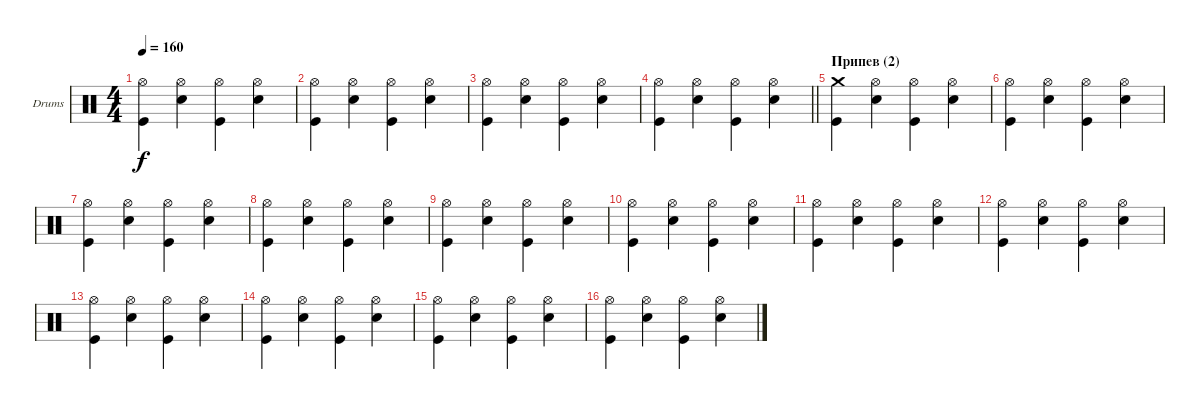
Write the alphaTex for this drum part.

\bracketExtendMode groupsimilarinstruments
\firstSystemTrackNameOrientation horizontal
\otherSystemsTrackNameOrientation horizontal
\track ("Drumkit" "Drums") {instrument percussion}
\staff {score}
\articulation defaults
\ts (4 4)
\tempo 160
\clef neutral
\ks c
("Hi-Hat (open)" "Kick (hit)").4{dy f} ("Hi-Hat (open)" "Snare (hit) 2").4 ("Hi-Hat (open)" "Kick (hit)").4 ("Hi-Hat (open)" "Snare (hit) 2").4 |
("Hi-Hat (open)" "Kick (hit)").4 ("Hi-Hat (open)" "Snare (hit) 2").4 ("Hi-Hat (open)" "Kick (hit)").4 ("Hi-Hat (open)" "Snare (hit) 2").4 |
("Hi-Hat (open)" "Kick (hit)").4 ("Hi-Hat (open)" "Snare (hit) 2").4 ("Hi-Hat (open)" "Kick (hit)").4 ("Hi-Hat (open)" "Snare (hit) 2").4 |
\barLineRight lightlight
("Hi-Hat (open)" "Kick (hit)").4 ("Hi-Hat (open)" "Snare (hit) 2").4 ("Hi-Hat (open)" "Kick (hit)").4 ("Hi-Hat (open)" "Snare (hit) 2").4 |
\section ("" "Припев (2)")
("Crash medium (hit)" "Kick (hit)").4 ("Hi-Hat (open)" "Snare (hit) 2").4 ("Hi-Hat (open)" "Kick (hit)").4 ("Hi-Hat (open)" "Snare (hit) 2").4 |
("Hi-Hat (open)" "Kick (hit)").4 ("Hi-Hat (open)" "Snare (hit) 2").4 ("Hi-Hat (open)" "Kick (hit)").4 ("Hi-Hat (open)" "Snare (hit) 2").4 |
("Hi-Hat (open)" "Kick (hit)").4 ("Hi-Hat (open)" "Snare (hit) 2").4 ("Hi-Hat (open)" "Kick (hit)").4 ("Hi-Hat (open)" "Snare (hit) 2").4 |
("Hi-Hat (open)" "Kick (hit)").4 ("Hi-Hat (open)" "Snare (hit) 2").4 ("Hi-Hat (open)" "Kick (hit)").4 ("Hi-Hat (open)" "Snare (hit) 2").4 |
("Hi-Hat (open)" "Kick (hit)").4 ("Hi-Hat (open)" "Snare (hit) 2").4 ("Hi-Hat (open)" "Kick (hit)").4 ("Hi-Hat (open)" "Snare (hit) 2").4 |
("Hi-Hat (open)" "Kick (hit)").4 ("Hi-Hat (open)" "Snare (hit) 2").4 ("Hi-Hat (open)" "Kick (hit)").4 ("Hi-Hat (open)" "Snare (hit) 2").4 |
("Hi-Hat (open)" "Kick (hit)").4 ("Hi-Hat (open)" "Snare (hit) 2").4 ("Hi-Hat (open)" "Kick (hit)").4 ("Hi-Hat (open)" "Snare (hit) 2").4 |
("Hi-Hat (open)" "Kick (hit)").4 ("Hi-Hat (open)" "Snare (hit) 2").4 ("Hi-Hat (open)" "Kick (hit)").4 ("Hi-Hat (open)" "Snare (hit) 2").4 |
("Hi-Hat (open)" "Kick (hit)").4 ("Hi-Hat (open)" "Snare (hit) 2").4 ("Hi-Hat (open)" "Kick (hit)").4 ("Hi-Hat (open)" "Snare (hit) 2").4 |
("Hi-Hat (open)" "Kick (hit)").4 ("Hi-Hat (open)" "Snare (hit) 2").4 ("Hi-Hat (open)" "Kick (hit)").4 ("Hi-Hat (open)" "Snare (hit) 2").4 |
("Hi-Hat (open)" "Kick (hit)").4 ("Hi-Hat (open)" "Snare (hit) 2").4 ("Hi-Hat (open)" "Kick (hit)").4 ("Hi-Hat (open)" "Snare (hit) 2").4 |
("Hi-Hat (open)" "Kick (hit)").4 ("Hi-Hat (open)" "Snare (hit) 2").4 ("Hi-Hat (open)" "Kick (hit)").4 ("Hi-Hat (open)" "Snare (hit) 2").4
